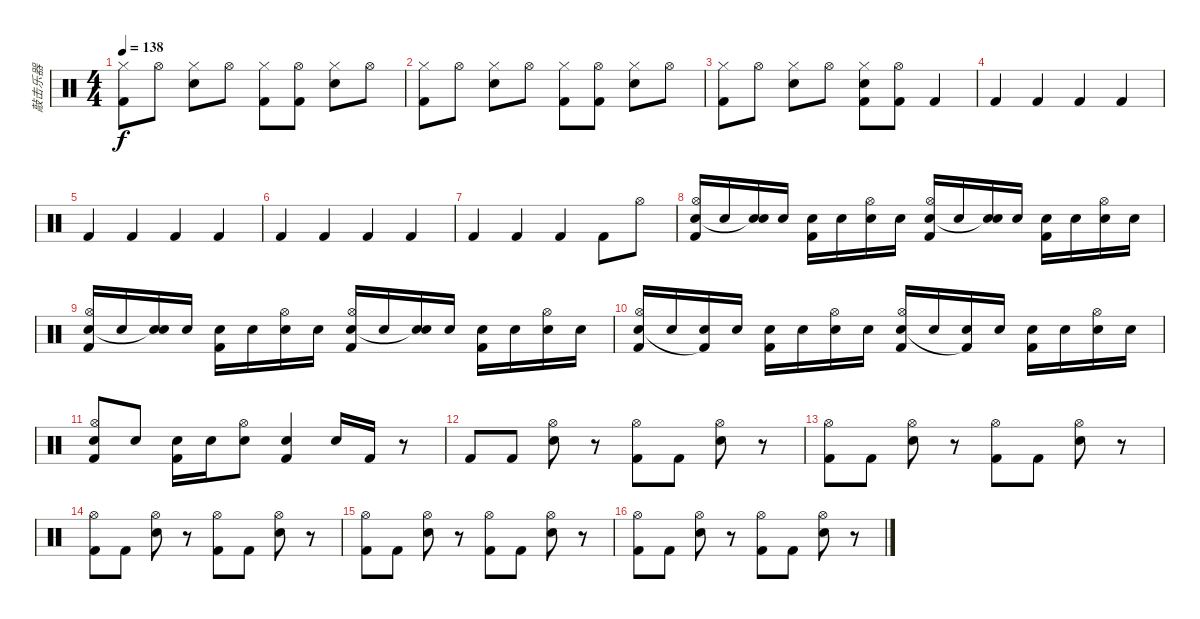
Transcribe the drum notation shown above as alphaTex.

\track ("敲击乐器" "敲击乐器") {instrument percussion}
\staff {score}
\articulation defaults
\ts (4 4)
\tempo 138
\clef neutral
\ks c
("Hi-Hat (closed)" "Kick (hit) 2").8{dy f} "Hi-Hat (open)".8 ("Hi-Hat (closed)" "Electric Snare (hit)").8 "Hi-Hat (open)".8 ("Hi-Hat (closed)" "Kick (hit) 2").8 ("Hi-Hat (open)" "Kick (hit) 2").8 ("Hi-Hat (closed)" "Electric Snare (hit)").8 "Hi-Hat (open)".8 |
("Hi-Hat (closed)" "Kick (hit) 2").8 "Hi-Hat (open)".8 ("Hi-Hat (closed)" "Electric Snare (hit)").8 "Hi-Hat (open)".8 ("Hi-Hat (closed)" "Kick (hit) 2").8 ("Hi-Hat (open)" "Kick (hit) 2").8 ("Hi-Hat (closed)" "Electric Snare (hit)").8 "Hi-Hat (open)".8 |
("Hi-Hat (closed)" "Kick (hit) 2").8 "Hi-Hat (open)".8 ("Hi-Hat (closed)" "Electric Snare (hit)").8 "Hi-Hat (open)".8 ("Hi-Hat (closed)" "Electric Snare (hit)" "Kick (hit) 2").8 ("Hi-Hat (open)" "Kick (hit) 2").8 "Kick (hit) 2".4 |
"Kick (hit) 2".4 "Kick (hit) 2".4 "Kick (hit) 2".4 "Kick (hit) 2".4 |
"Kick (hit) 2".4 "Kick (hit) 2".4 "Kick (hit) 2".4 "Kick (hit) 2".4 |
"Kick (hit) 2".4 "Kick (hit) 2".4 "Kick (hit) 2".4 "Kick (hit) 2".4 |
"Kick (hit) 2".4 "Kick (hit) 2".4 "Kick (hit) 2".4 "Kick (hit) 2".8 "Hi-Hat (open)".8 |
("Hi-Hat (open)" "Electric Snare (hit)" "Kick (hit) 2").16 "Electric Snare (hit)".16 ("Electric Snare (hit)" "Snare (hit)"{t}).16 "Electric Snare (hit)".16 ("Electric Snare (hit)" "Kick (hit) 2").16 "Electric Snare (hit)".16 ("Hi-Hat (open)" "Electric Snare (hit)").16 "Electric Snare (hit)".16 ("Hi-Hat (open)" "Electric Snare (hit)" "Kick (hit) 2").16 "Electric Snare (hit)".16 ("Electric Snare (hit)" "Snare (hit)"{t}).16 "Electric Snare (hit)".16 ("Electric Snare (hit)" "Kick (hit) 2").16 "Electric Snare (hit)".16 ("Hi-Hat (open)" "Electric Snare (hit)").16 "Electric Snare (hit)".16 |
("Hi-Hat (open)" "Electric Snare (hit)" "Kick (hit) 2").16 "Electric Snare (hit)".16 ("Electric Snare (hit)" "Snare (hit)"{t}).16 "Electric Snare (hit)".16 ("Electric Snare (hit)" "Kick (hit) 2").16 "Electric Snare (hit)".16 ("Hi-Hat (open)" "Electric Snare (hit)").16 "Electric Snare (hit)".16 ("Hi-Hat (open)" "Electric Snare (hit)" "Kick (hit) 2").16 "Electric Snare (hit)".16 ("Electric Snare (hit)" "Snare (hit)"{t}).16 "Electric Snare (hit)".16 ("Electric Snare (hit)" "Kick (hit) 2").16 "Electric Snare (hit)".16 ("Hi-Hat (open)" "Electric Snare (hit)").16 "Electric Snare (hit)".16 |
("Hi-Hat (open)" "Electric Snare (hit)" "Kick (hit) 2").16 "Electric Snare (hit)".16 ("Electric Snare (hit)" "Kick (hit) 2"{t}).16 "Electric Snare (hit)".16 ("Electric Snare (hit)" "Kick (hit) 2").16 "Electric Snare (hit)".16 ("Hi-Hat (open)" "Electric Snare (hit)").16 "Electric Snare (hit)".16 ("Hi-Hat (open)" "Electric Snare (hit)" "Kick (hit) 2").16 "Electric Snare (hit)".16 ("Electric Snare (hit)" "Kick (hit) 2"{t}).16 "Electric Snare (hit)".16 ("Electric Snare (hit)" "Kick (hit) 2").16 "Electric Snare (hit)".16 ("Hi-Hat (open)" "Electric Snare (hit)").16 "Electric Snare (hit)".16 |
("Hi-Hat (open)" "Electric Snare (hit)" "Kick (hit) 2").8 "Electric Snare (hit)".8 ("Electric Snare (hit)" "Kick (hit) 2").16 "Electric Snare (hit)".16 ("Hi-Hat (open)" "Electric Snare (hit)").8 ("Electric Snare (hit)" "Kick (hit) 2").4 "Electric Snare (hit)".16 "Kick (hit) 2".16 r.8 |
"Kick (hit) 2".8 "Kick (hit) 2".8 ("Hi-Hat (open)" "Electric Snare (hit)").8 r.8 ("Hi-Hat (open)" "Kick (hit) 2").8 "Kick (hit) 2".8 ("Hi-Hat (open)" "Electric Snare (hit)").8 r.8 |
("Hi-Hat (open)" "Kick (hit) 2").8 "Kick (hit) 2".8 ("Hi-Hat (open)" "Electric Snare (hit)").8 r.8 ("Hi-Hat (open)" "Kick (hit) 2").8 "Kick (hit) 2".8 ("Hi-Hat (open)" "Electric Snare (hit)").8 r.8 |
("Hi-Hat (open)" "Kick (hit) 2").8 "Kick (hit) 2".8 ("Hi-Hat (open)" "Electric Snare (hit)").8 r.8 ("Hi-Hat (open)" "Kick (hit) 2").8 "Kick (hit) 2".8 ("Hi-Hat (open)" "Electric Snare (hit)").8 r.8 |
("Hi-Hat (open)" "Kick (hit) 2").8 "Kick (hit) 2".8 ("Hi-Hat (open)" "Electric Snare (hit)").8 r.8 ("Hi-Hat (open)" "Kick (hit) 2").8 "Kick (hit) 2".8 ("Hi-Hat (open)" "Electric Snare (hit)").8 r.8 |
("Hi-Hat (open)" "Kick (hit) 2").8 "Kick (hit) 2".8 ("Hi-Hat (open)" "Electric Snare (hit)").8 r.8 ("Hi-Hat (open)" "Kick (hit) 2").8 "Kick (hit) 2".8 ("Hi-Hat (open)" "Electric Snare (hit)").8 r.8
